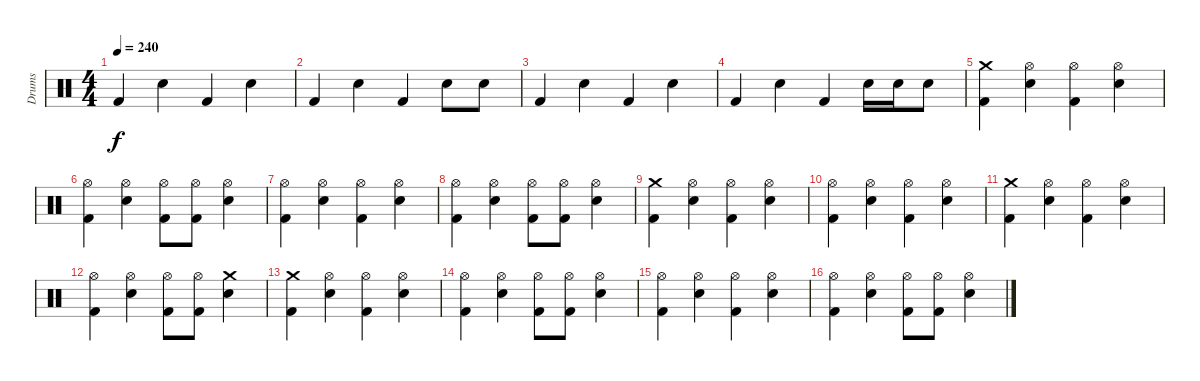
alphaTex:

\track ("Drums" "Drums") {instrument percussion}
\staff {score}
\articulation defaults
\ts (4 4)
\tempo 240
\clef neutral
\ks c "Kick (hit) 2".4{dy f} "Snare (hit) 2".4 "Kick (hit) 2".4 "Snare (hit) 2".4
|
"Kick (hit) 2".4 "Snare (hit) 2".4 "Kick (hit) 2".4 "Snare (hit) 2".8 "Snare (hit) 2".8 |
"Kick (hit) 2".4 "Snare (hit) 2".4 "Kick (hit) 2".4 "Snare (hit) 2".4 |
"Kick (hit) 2".4 "Snare (hit) 2".4 "Kick (hit) 2".4 "Snare (hit) 2".16 "Snare (hit) 2".16 "Snare (hit) 2".8 |
("Crash medium (hit)" "Kick (hit) 2").4 ("Hi-Hat (open)" "Snare (hit) 2").4 ("Hi-Hat (open)" "Kick (hit) 2").4 ("Hi-Hat (open)" "Snare (hit) 2").4 |
("Hi-Hat (open)" "Kick (hit) 2").4 ("Hi-Hat (open)" "Snare (hit) 2").4 ("Hi-Hat (open)" "Kick (hit) 2").8 ("Hi-Hat (open)" "Kick (hit) 2").8 ("Hi-Hat (open)" "Snare (hit) 2").4 |
("Hi-Hat (open)" "Kick (hit) 2").4 ("Hi-Hat (open)" "Snare (hit) 2").4 ("Hi-Hat (open)" "Kick (hit) 2").4 ("Hi-Hat (open)" "Snare (hit) 2").4 |
("Hi-Hat (open)" "Kick (hit) 2").4 ("Hi-Hat (open)" "Snare (hit) 2").4 ("Hi-Hat (open)" "Kick (hit) 2").8 ("Hi-Hat (open)" "Kick (hit) 2").8 ("Hi-Hat (open)" "Snare (hit) 2").4 |
("Crash medium (hit)" "Kick (hit) 2").4 ("Hi-Hat (open)" "Snare (hit) 2").4 ("Hi-Hat (open)" "Kick (hit) 2").4 ("Hi-Hat (open)" "Snare (hit) 2").4 |
("Hi-Hat (open)" "Kick (hit) 2").4 ("Hi-Hat (open)" "Snare (hit) 2").4 ("Hi-Hat (open)" "Kick (hit) 2").4 ("Hi-Hat (open)" "Snare (hit) 2").4 |
("Crash medium (hit)" "Kick (hit) 2").4 ("Hi-Hat (open)" "Snare (hit) 2").4 ("Hi-Hat (open)" "Kick (hit) 2").4 ("Hi-Hat (open)" "Snare (hit) 2").4 |
("Hi-Hat (open)" "Kick (hit) 2").4 ("Hi-Hat (open)" "Snare (hit) 2").4 ("Hi-Hat (open)" "Kick (hit) 2").8 ("Hi-Hat (open)" "Kick (hit) 2").8 ("Crash medium (hit)" "Snare (hit) 2").4 |
("Crash medium (hit)" "Kick (hit) 2").4 ("Hi-Hat (open)" "Snare (hit) 2").4 ("Hi-Hat (open)" "Kick (hit) 2").4 ("Hi-Hat (open)" "Snare (hit) 2").4 |
("Hi-Hat (open)" "Kick (hit) 2").4 ("Hi-Hat (open)" "Snare (hit) 2").4 ("Hi-Hat (open)" "Kick (hit) 2").8 ("Hi-Hat (open)" "Kick (hit) 2").8 ("Hi-Hat (open)" "Snare (hit) 2").4 |
("Hi-Hat (open)" "Kick (hit) 2").4 ("Hi-Hat (open)" "Snare (hit) 2").4 ("Hi-Hat (open)" "Kick (hit) 2").4 ("Hi-Hat (open)" "Snare (hit) 2").4 |
("Hi-Hat (open)" "Kick (hit) 2").4 ("Hi-Hat (open)" "Snare (hit) 2").4 ("Hi-Hat (open)" "Kick (hit) 2").8 ("Hi-Hat (open)" "Kick (hit) 2").8 ("Hi-Hat (open)" "Snare (hit) 2").4
